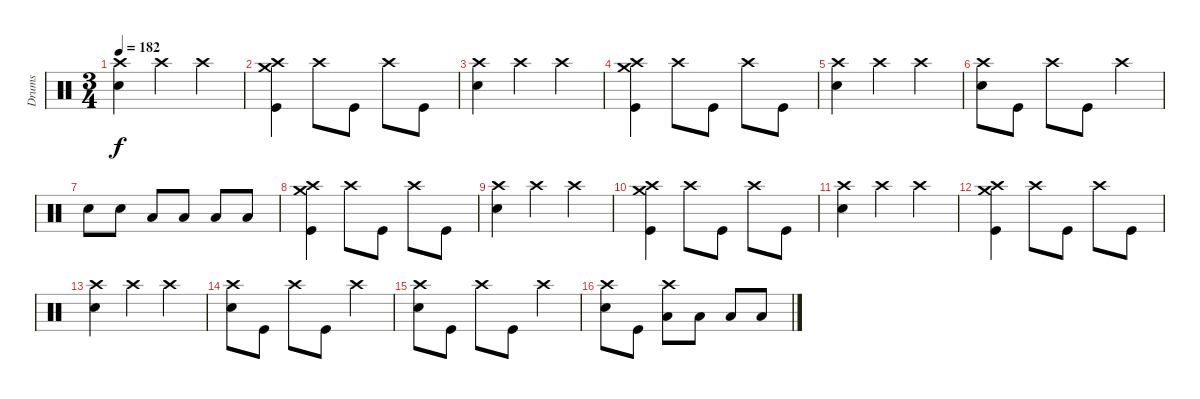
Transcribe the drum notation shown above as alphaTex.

\track ("Drums" "Drums") {instrument percussion}
\staff {score}
\articulation defaults
\ts (3 4)
\tempo 182
\clef neutral
\ks c
("Crash high (hit)" "Electric Snare (hit)").4{dy f} "Crash high (hit)".4 "Crash high (hit)".4 |
("Crash high (hit)" "Crash medium (hit)" "Kick (hit)").4 "Crash high (hit)".8 "Kick (hit)".8 "Crash high (hit)".8 "Kick (hit)".8 |
("Crash high (hit)" "Electric Snare (hit)").4 "Crash high (hit)".4 "Crash high (hit)".4 |
("Crash high (hit)" "Crash medium (hit)" "Kick (hit)").4 "Crash high (hit)".8 "Kick (hit)".8 "Crash high (hit)".8 "Kick (hit)".8 |
("Crash high (hit)" "Electric Snare (hit)").4 "Crash high (hit)".4 "Crash high (hit)".4 |
("Crash high (hit)" "Electric Snare (hit)").8 "Kick (hit)".8 "Crash high (hit)".8 "Kick (hit)".8 "Crash high (hit)".4 |
"Electric Snare (hit)".8 "Electric Snare (hit)".8 "Low Tom (hit)".8 "Low Tom (hit)".8 "Low Floor Tom (hit)".8 "Low Floor Tom (hit)".8 |
("Crash high (hit)" "Crash medium (hit)" "Kick (hit)").4 "Crash high (hit)".8 "Kick (hit)".8 "Crash high (hit)".8 "Kick (hit)".8 |
("Crash high (hit)" "Electric Snare (hit)").4 "Crash high (hit)".4 "Crash high (hit)".4 |
("Crash high (hit)" "Crash medium (hit)" "Kick (hit)").4 "Crash high (hit)".8 "Kick (hit)".8 "Crash high (hit)".8 "Kick (hit)".8 |
("Crash high (hit)" "Electric Snare (hit)").4 "Crash high (hit)".4 "Crash high (hit)".4 |
("Crash high (hit)" "Crash medium (hit)" "Kick (hit)").4 "Crash high (hit)".8 "Kick (hit)".8 "Crash high (hit)".8 "Kick (hit)".8 |
("Crash high (hit)" "Electric Snare (hit)").4 "Crash high (hit)".4 "Crash high (hit)".4 |
("Crash high (hit)" "Electric Snare (hit)").8 "Kick (hit)".8 "Crash high (hit)".8 "Kick (hit)".8 "Crash high (hit)".4 |
("Crash high (hit)" "Electric Snare (hit)").8 "Kick (hit)".8 "Crash high (hit)".8 "Kick (hit)".8 "Crash high (hit)".4 |
("Crash high (hit)" "Electric Snare (hit)").8 "Kick (hit)".8 ("Crash high (hit)" "Low Floor Tom (hit)").8 "Low Floor Tom (hit)".8 "Low Floor Tom (hit)".8 "Low Floor Tom (hit)".8
